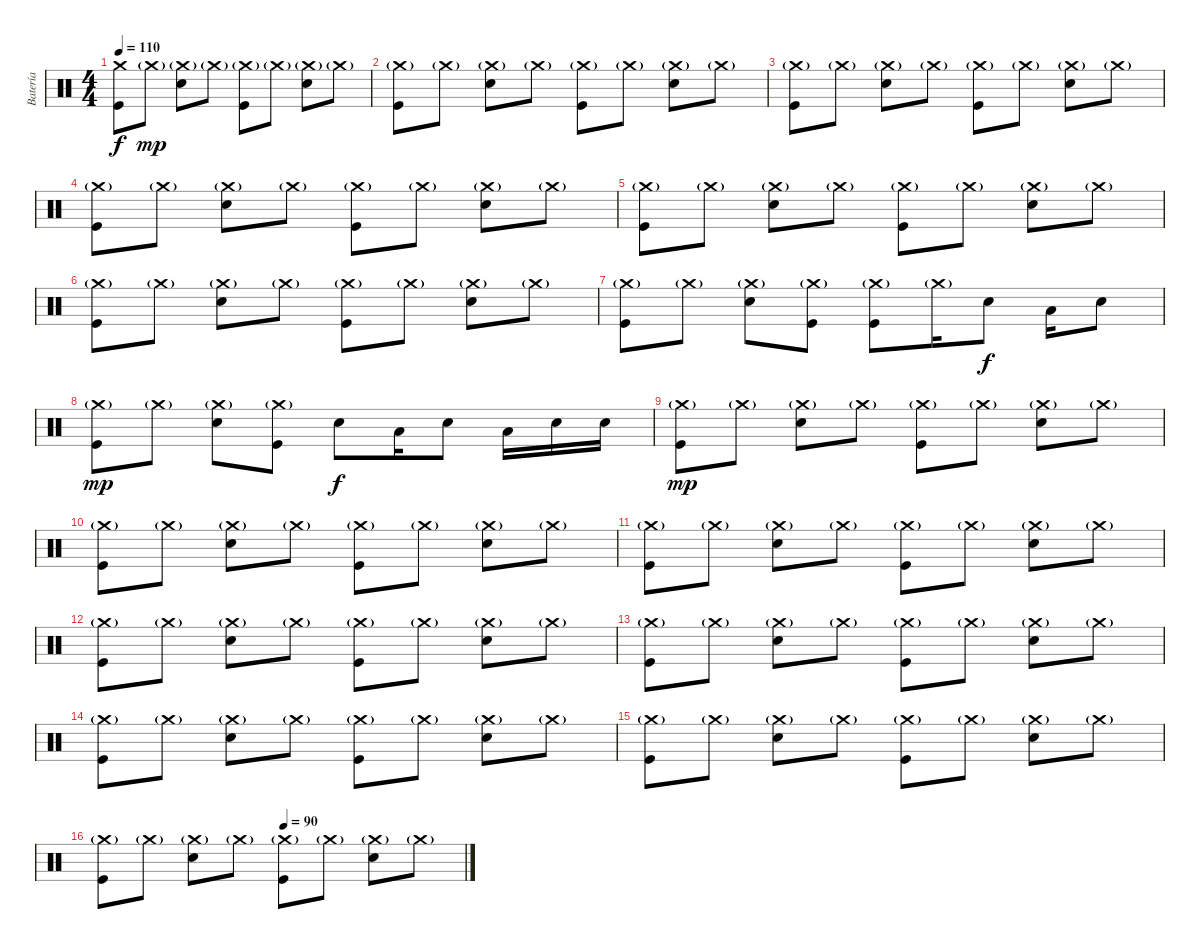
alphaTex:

\track ("Batería" "Batería") {instrument percussion}
\staff {score}
\articulation defaults
\ts (4 4)
\tempo 110
\clef neutral
\ks c
("Crash medium (hit)" "Kick (hit)").8{dy f} "Crash medium (hit)"{g}.8{dy mp} ("Crash medium (hit)"{g} "Snare (hit) 2").8 "Crash medium (hit)"{g}.8 ("Crash medium (hit)"{g} "Kick (hit)").8 "Crash medium (hit)"{g}.8 ("Crash medium (hit)"{g} "Snare (hit) 2").8 "Crash medium (hit)"{g}.8 |
("Crash medium (hit)"{g} "Kick (hit)").8 "Crash medium (hit)"{g}.8 ("Crash medium (hit)"{g} "Snare (hit) 2").8 "Crash medium (hit)"{g}.8 ("Crash medium (hit)"{g} "Kick (hit)").8 "Crash medium (hit)"{g}.8 ("Crash medium (hit)"{g} "Snare (hit) 2").8 "Crash medium (hit)"{g}.8 |
("Crash medium (hit)"{g} "Kick (hit)").8 "Crash medium (hit)"{g}.8 ("Crash medium (hit)"{g} "Snare (hit) 2").8 "Crash medium (hit)"{g}.8 ("Crash medium (hit)"{g} "Kick (hit)").8 "Crash medium (hit)"{g}.8 ("Crash medium (hit)"{g} "Snare (hit) 2").8 "Crash medium (hit)"{g}.8 |
("Crash medium (hit)"{g} "Kick (hit)").8 "Crash medium (hit)"{g}.8 ("Crash medium (hit)"{g} "Snare (hit) 2").8 "Crash medium (hit)"{g}.8 ("Crash medium (hit)"{g} "Kick (hit)").8 "Crash medium (hit)"{g}.8 ("Crash medium (hit)"{g} "Snare (hit) 2").8 "Crash medium (hit)"{g}.8 |
("Crash medium (hit)"{g} "Kick (hit)").8 "Crash medium (hit)"{g}.8 ("Crash medium (hit)"{g} "Snare (hit) 2").8 "Crash medium (hit)"{g}.8 ("Crash medium (hit)"{g} "Kick (hit)").8 "Crash medium (hit)"{g}.8 ("Crash medium (hit)"{g} "Snare (hit) 2").8 "Crash medium (hit)"{g}.8 |
("Crash medium (hit)"{g} "Kick (hit)").8 "Crash medium (hit)"{g}.8 ("Crash medium (hit)"{g} "Snare (hit) 2").8 "Crash medium (hit)"{g}.8 ("Crash medium (hit)"{g} "Kick (hit)").8 "Crash medium (hit)"{g}.8 ("Crash medium (hit)"{g} "Snare (hit) 2").8 "Crash medium (hit)"{g}.8 |
("Crash medium (hit)"{g} "Kick (hit)").8 "Crash medium (hit)"{g}.8 ("Crash medium (hit)"{g} "Snare (hit) 2").8 ("Crash medium (hit)"{g} "Kick (hit)").8 ("Crash medium (hit)"{g} "Kick (hit)").8 "Crash medium (hit)"{g}.16 "Snare (hit) 2".8{dy f} "Low Tom (hit)".16 "Snare (hit) 2".8 |
("Crash medium (hit)"{g} "Kick (hit)").8{dy mp} "Crash medium (hit)"{g}.8 ("Crash medium (hit)"{g} "Snare (hit) 2").8 ("Crash medium (hit)"{g} "Kick (hit)").8 "Snare (hit) 2".8{dy f} "Low Tom (hit)".16 "Snare (hit) 2".8 "Low Tom (hit)".16 "Snare (hit) 2".16 "Snare (hit) 2".16 |
("Crash medium (hit)"{g} "Kick (hit)").8{dy mp} "Crash medium (hit)"{g}.8 ("Crash medium (hit)"{g} "Snare (hit) 2").8 "Crash medium (hit)"{g}.8 ("Crash medium (hit)"{g} "Kick (hit)").8 "Crash medium (hit)"{g}.8 ("Crash medium (hit)"{g} "Snare (hit) 2").8 "Crash medium (hit)"{g}.8 |
("Crash medium (hit)"{g} "Kick (hit)").8 "Crash medium (hit)"{g}.8 ("Crash medium (hit)"{g} "Snare (hit) 2").8 "Crash medium (hit)"{g}.8 ("Crash medium (hit)"{g} "Kick (hit)").8 "Crash medium (hit)"{g}.8 ("Crash medium (hit)"{g} "Snare (hit) 2").8 "Crash medium (hit)"{g}.8 |
("Crash medium (hit)"{g} "Kick (hit)").8 "Crash medium (hit)"{g}.8 ("Crash medium (hit)"{g} "Snare (hit) 2").8 "Crash medium (hit)"{g}.8 ("Crash medium (hit)"{g} "Kick (hit)").8 "Crash medium (hit)"{g}.8 ("Crash medium (hit)"{g} "Snare (hit) 2").8 "Crash medium (hit)"{g}.8 |
("Crash medium (hit)"{g} "Kick (hit)").8 "Crash medium (hit)"{g}.8 ("Crash medium (hit)"{g} "Snare (hit) 2").8 "Crash medium (hit)"{g}.8 ("Crash medium (hit)"{g} "Kick (hit)").8 "Crash medium (hit)"{g}.8 ("Crash medium (hit)"{g} "Snare (hit) 2").8 "Crash medium (hit)"{g}.8 |
("Crash medium (hit)"{g} "Kick (hit)").8 "Crash medium (hit)"{g}.8 ("Crash medium (hit)"{g} "Snare (hit) 2").8 "Crash medium (hit)"{g}.8 ("Crash medium (hit)"{g} "Kick (hit)").8 "Crash medium (hit)"{g}.8 ("Crash medium (hit)"{g} "Snare (hit) 2").8 "Crash medium (hit)"{g}.8 |
("Crash medium (hit)"{g} "Kick (hit)").8 "Crash medium (hit)"{g}.8 ("Crash medium (hit)"{g} "Snare (hit) 2").8 "Crash medium (hit)"{g}.8 ("Crash medium (hit)"{g} "Kick (hit)").8 "Crash medium (hit)"{g}.8 ("Crash medium (hit)"{g} "Snare (hit) 2").8 "Crash medium (hit)"{g}.8 |
("Crash medium (hit)"{g} "Kick (hit)").8 "Crash medium (hit)"{g}.8 ("Crash medium (hit)"{g} "Snare (hit) 2").8 "Crash medium (hit)"{g}.8 ("Crash medium (hit)"{g} "Kick (hit)").8 "Crash medium (hit)"{g}.8 ("Crash medium (hit)"{g} "Snare (hit) 2").8 "Crash medium (hit)"{g}.8 |
\tempo (90 0.5)
("Crash medium (hit)"{g} "Kick (hit)").8 "Crash medium (hit)"{g}.8 ("Crash medium (hit)"{g} "Snare (hit) 2").8 "Crash medium (hit)"{g}.8 ("Crash medium (hit)"{g} "Kick (hit)").8 "Crash medium (hit)"{g}.8 ("Crash medium (hit)"{g} "Snare (hit) 2").8 "Crash medium (hit)"{g}.8
